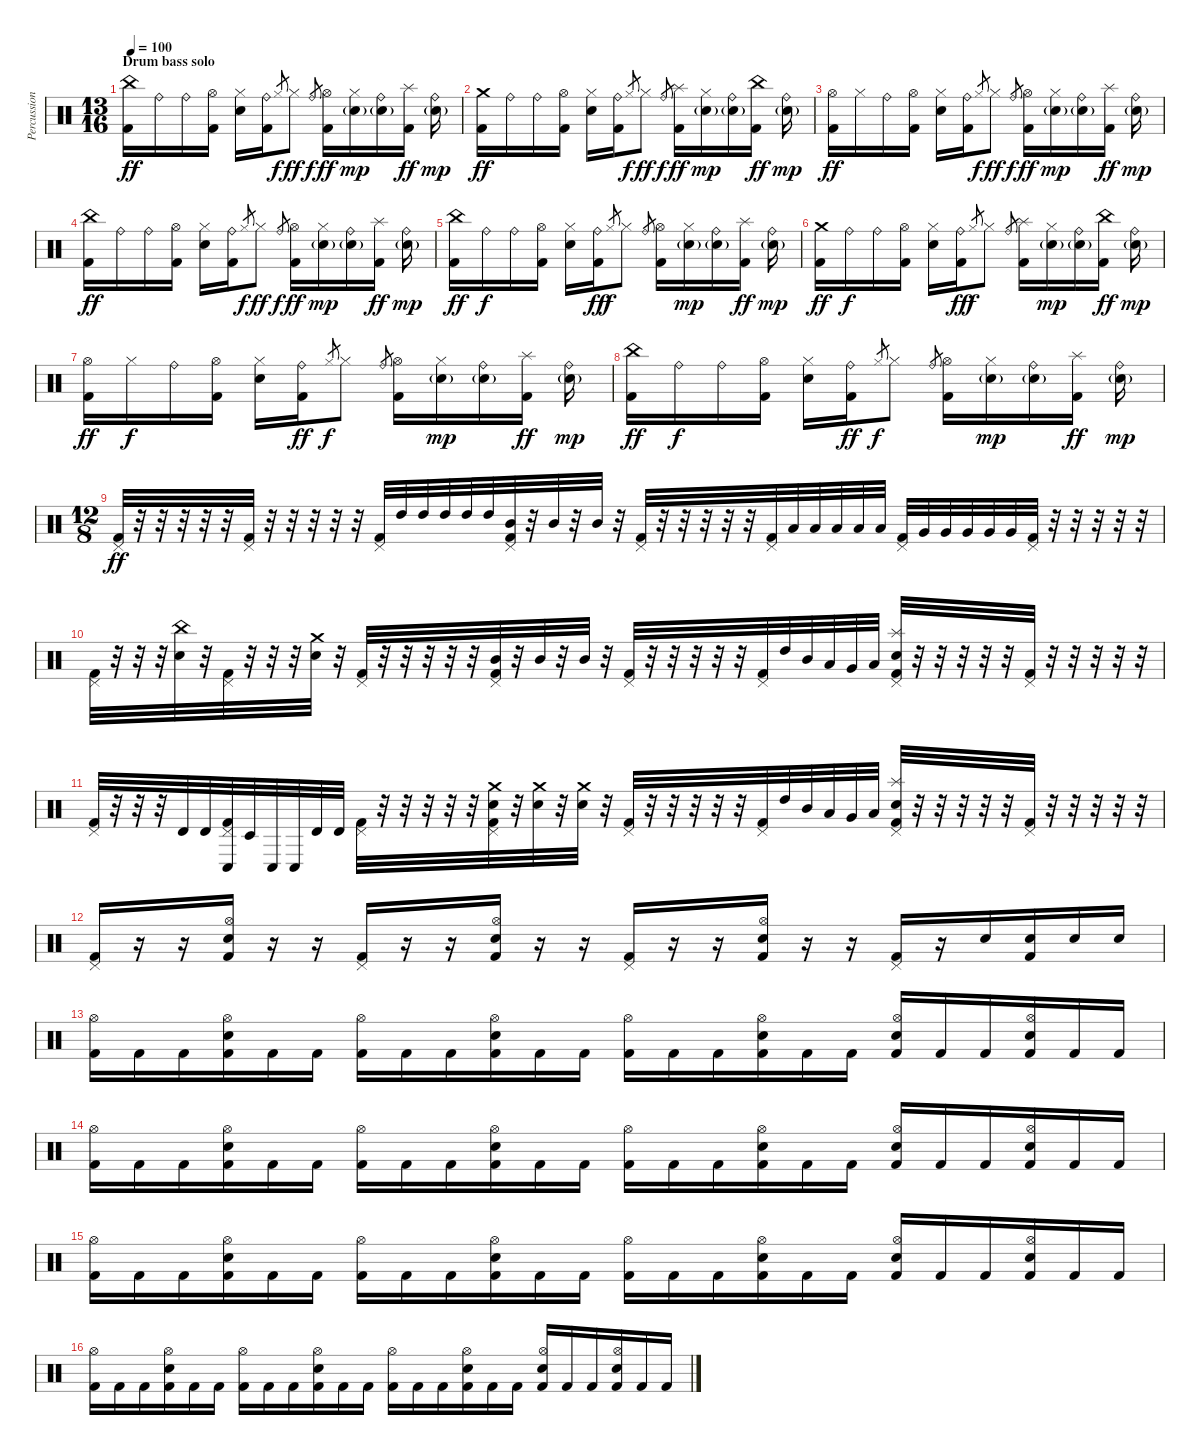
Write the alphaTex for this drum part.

\track ("Percussions" "Percussion") {instrument percussion}
\staff {score}
\articulation defaults
\ts (13 16)
\section ("" "Drum bass solo")
\tempo 100
\clef neutral
\ks c
("China (hit)" "Kick (hit) 2").16{dy ff} "Ride (bell)".16 "Ride (bell)".16 ("Hi-Hat (open)" "Kick (hit) 2").16 ("Hi-Hat (closed)" "Electric Snare (hit)").16 ("Ride (bell)" "Kick (hit) 2").16 "Hi-Hat (closed)".8{gr dy f} "Hi-Hat (closed)".8{dy ff} "Ride (bell)".8{gr dy f} ("Hi-Hat (open)" "Kick (hit) 2").16{dy ff} ("Hi-Hat (closed)" "Electric Snare (hit)"{g}).16{dy mp} ("Ride (bell)" "Electric Snare (hit)"{g}).16 ("Splash (hit)" "Kick (hit) 2").16{dy ff} ("Ride (bell)" "Electric Snare (hit)"{g}).16{dy mp} |
("Crash medium (hit)" "Kick (hit) 2").16{dy ff} "Ride (bell)".16 "Ride (bell)".16 ("Hi-Hat (open)" "Kick (hit) 2").16 ("Hi-Hat (closed)" "Electric Snare (hit)").16 ("Ride (bell)" "Kick (hit) 2").16 "Hi-Hat (closed)".8{gr dy f} "Hi-Hat (closed)".8{dy ff} "Ride (bell)".8{gr dy f} ("Splash (hit)" "Kick (hit) 2").16{dy ff} ("Hi-Hat (closed)" "Electric Snare (hit)"{g}).16{dy mp} ("Ride (bell)" "Electric Snare (hit)"{g}).16 ("China (hit)" "Kick (hit) 2").16{dy ff} ("Ride (bell)" "Electric Snare (hit)"{g}).16{dy mp} |
("Hi-Hat (open)" "Kick (hit) 2").16{dy ff} "Hi-Hat (closed)".16 "Ride (bell)".16 ("Hi-Hat (open)" "Kick (hit) 2").16 ("Hi-Hat (closed)" "Electric Snare (hit)").16 ("Ride (bell)" "Kick (hit) 2").16 "Hi-Hat (closed)".8{gr dy f} "Hi-Hat (closed)".8{dy ff} "Ride (bell)".8{gr dy f} ("Hi-Hat (open)" "Kick (hit) 2").16{dy ff} ("Hi-Hat (closed)" "Electric Snare (hit)"{g}).16{dy mp} ("Ride (bell)" "Electric Snare (hit)"{g}).16 ("Splash (hit)" "Kick (hit) 2").16{dy ff} ("Ride (bell)" "Electric Snare (hit)"{g}).16{dy mp} |
("China (hit)" "Kick (hit) 2").16{dy ff} "Ride (bell)".16 "Ride (bell)".16 ("Hi-Hat (open)" "Kick (hit) 2").16 ("Hi-Hat (closed)" "Electric Snare (hit)").16 ("Ride (bell)" "Kick (hit) 2").16 "Hi-Hat (closed)".8{gr dy f} "Hi-Hat (closed)".8{dy ff} "Ride (bell)".8{gr dy f} ("Hi-Hat (open)" "Kick (hit) 2").16{dy ff} ("Hi-Hat (closed)" "Electric Snare (hit)"{g}).16{dy mp} ("Ride (bell)" "Electric Snare (hit)"{g}).16 ("Splash (hit)" "Kick (hit) 2").16{dy ff} ("Ride (bell)" "Electric Snare (hit)"{g}).16{dy mp} |
("China (hit)" "Kick (hit) 2").16{dy ff} "Ride (bell)".16{dy f} "Ride (bell)".16 ("Hi-Hat (open)" "Kick (hit) 2").16 ("Hi-Hat (closed)" "Electric Snare (hit)").16 ("Ride (bell)" "Kick (hit) 2").16{dy ff} "Hi-Hat (closed)".8{gr dy f} "Hi-Hat (closed)".8 "Ride (bell)".8{gr} ("Hi-Hat (open)" "Kick (hit) 2").16 ("Hi-Hat (closed)" "Electric Snare (hit)"{g}).16{dy mp} ("Ride (bell)" "Electric Snare (hit)"{g}).16 ("Splash (hit)" "Kick (hit) 2").16{dy ff} ("Ride (bell)" "Electric Snare (hit)"{g}).16{dy mp} |
("Crash medium (hit)" "Kick (hit) 2").16{dy ff} "Ride (bell)".16{dy f} "Ride (bell)".16 ("Hi-Hat (open)" "Kick (hit) 2").16 ("Hi-Hat (closed)" "Electric Snare (hit)").16 ("Ride (bell)" "Kick (hit) 2").16{dy ff} "Hi-Hat (closed)".8{gr dy f} "Hi-Hat (closed)".8 "Ride (bell)".8{gr} ("Splash (hit)" "Kick (hit) 2").16 ("Hi-Hat (closed)" "Electric Snare (hit)"{g}).16{dy mp} ("Ride (bell)" "Electric Snare (hit)"{g}).16 ("China (hit)" "Kick (hit) 2").16{dy ff} ("Ride (bell)" "Electric Snare (hit)"{g}).16{dy mp} |
("Hi-Hat (open)" "Kick (hit) 2").16{dy ff} "Hi-Hat (closed)".16{dy f} "Ride (bell)".16 ("Hi-Hat (open)" "Kick (hit) 2").16 ("Hi-Hat (closed)" "Electric Snare (hit)").16 ("Ride (bell)" "Kick (hit) 2").16{dy ff} "Hi-Hat (closed)".8{gr dy f} "Hi-Hat (closed)".8 "Ride (bell)".8{gr} ("Hi-Hat (open)" "Kick (hit) 2").16 ("Hi-Hat (closed)" "Electric Snare (hit)"{g}).16{dy mp} ("Ride (bell)" "Electric Snare (hit)"{g}).16 ("Splash (hit)" "Kick (hit) 2").16{dy ff} ("Ride (bell)" "Electric Snare (hit)"{g}).16{dy mp} |
("China (hit)" "Kick (hit) 2").16{dy ff} "Ride (bell)".16{dy f} "Ride (bell)".16 ("Hi-Hat (open)" "Kick (hit) 2").16 ("Hi-Hat (closed)" "Electric Snare (hit)").16 ("Ride (bell)" "Kick (hit) 2").16{dy ff} "Hi-Hat (closed)".8{gr dy f} "Hi-Hat (closed)".8 "Ride (bell)".8{gr} ("Hi-Hat (open)" "Kick (hit) 2").16 ("Hi-Hat (closed)" "Electric Snare (hit)"{g}).16{dy mp} ("Ride (bell)" "Electric Snare (hit)"{g}).16 ("Splash (hit)" "Kick (hit) 2").16{dy ff} ("Ride (bell)" "Electric Snare (hit)"{g}).16{dy mp} |
\ts (12 8)
("Pedal Hi-Hat (hit)" "Kick (hit) 2").32{dy ff} r.32 r.32 r.32 r.32 r.32 ("Pedal Hi-Hat (hit)" "Kick (hit) 2").32 r.32 r.32 r.32 r.32 r.32 ("Pedal Hi-Hat (hit)" "Kick (hit) 2").32 "High Tom (hit)".32 "High Tom (hit)".32 "High Tom (hit)".32 "High Tom (hit)".32 "High Tom (hit)".32 ("Mid Tom (hit)" "Pedal Hi-Hat (hit)" "Kick (hit) 2").32 r.32 "Mid Tom (hit)".32 r.32 "Mid Tom (hit)".32 r.32 ("Pedal Hi-Hat (hit)" "Kick (hit) 2").32 r.32 r.32 r.32 r.32 r.32 ("Pedal Hi-Hat (hit)" "Kick (hit) 2").32 "Low Tom (hit)".32 "Low Tom (hit)".32 "Low Tom (hit)".32 "Low Tom (hit)".32 "Low Tom (hit)".32 ("Pedal Hi-Hat (hit)" "Kick (hit) 2").32 "Very Low Tom (hit)".32 "Very Low Tom (hit)".32 "Very Low Tom (hit)".32 "Very Low Tom (hit)".32 "Very Low Tom (hit)".32 ("Pedal Hi-Hat (hit)" "Kick (hit) 2").32 r.32 r.32 r.32 r.32 r.32 |
("Pedal Hi-Hat (hit)" "Kick (hit) 2").32 r.32 r.32 r.32 ("China (hit)" "Electric Snare (hit)").32 r.32 ("Pedal Hi-Hat (hit)" "Kick (hit) 2").32 r.32 r.32 r.32 ("Crash medium (hit)" "Electric Snare (hit)").32 r.32 ("Pedal Hi-Hat (hit)" "Kick (hit) 2").32 r.32 r.32 r.32 r.32 r.32 ("Mid Tom (hit)" "Pedal Hi-Hat (hit)" "Kick (hit) 2").32 r.32 "Mid Tom (hit)".32 r.32 "Mid Tom (hit)".32 r.32 ("Pedal Hi-Hat (hit)" "Kick (hit) 2").32 r.32 r.32 r.32 r.32 r.32 ("Pedal Hi-Hat (hit)" "Kick (hit) 2").32 "High Tom (hit)".32 "Mid Tom (hit)".32 "Low Tom (hit)".32 "Very Low Tom (hit)".32 "Low Floor Tom (hit)".32 ("Splash (hit)" "Electric Snare (hit)" "Pedal Hi-Hat (hit)" "Kick (hit) 2").32 r.32 r.32 r.32 r.32 r.32 ("Pedal Hi-Hat (hit)" "Kick (hit) 2").32 r.32 r.32 r.32 r.32 r.32 |
("Pedal Hi-Hat (hit)" "Kick (hit) 2").32 r.32 r.32 r.32 "Timbale high (hit)".32 "Timbale high (hit)".32 ("Conga low (hit)" "Pedal Hi-Hat (hit)" "Kick (hit) 2").32 "Timbale low (hit)".32 "Conga low (hit)".32 "Conga low (hit)".32 "Timbale high (hit)".32 "Timbale high (hit)".32 ("Pedal Hi-Hat (hit)" "Kick (hit) 2").32 r.32 r.32 r.32 r.32 r.32 ("Crash medium (hit)" "Electric Snare (hit)" "Pedal Hi-Hat (hit)" "Kick (hit) 2").32 r.32 ("Crash medium (hit)" "Electric Snare (hit)").32 r.32 ("Crash medium (hit)" "Electric Snare (hit)").32 r.32 ("Pedal Hi-Hat (hit)" "Kick (hit) 2").32 r.32 r.32 r.32 r.32 r.32 ("Pedal Hi-Hat (hit)" "Kick (hit) 2").32 "High Tom (hit)".32 "Mid Tom (hit)".32 "Low Tom (hit)".32 "Very Low Tom (hit)".32 "Low Floor Tom (hit)".32 ("Splash (hit)" "Electric Snare (hit)" "Pedal Hi-Hat (hit)" "Kick (hit) 2").32 r.32 r.32 r.32 r.32 r.32 ("Pedal Hi-Hat (hit)" "Kick (hit) 2").32 r.32 r.32 r.32 r.32 r.32 |
("Pedal Hi-Hat (hit)" "Kick (hit) 2").16 r.16 r.16 ("Hi-Hat (open)" "Electric Snare (hit)" "Kick (hit) 2").16 r.16 r.16 ("Pedal Hi-Hat (hit)" "Kick (hit) 2").16 r.16 r.16 ("Hi-Hat (open)" "Electric Snare (hit)" "Kick (hit) 2").16 r.16 r.16 ("Pedal Hi-Hat (hit)" "Kick (hit) 2").16 r.16 r.16 ("Electric Snare (hit)" "Hi-Hat (open)" "Kick (hit) 2").16 r.16 r.16 ("Pedal Hi-Hat (hit)" "Kick (hit) 2").16 r.16 "Electric Snare (hit)".16 ("Electric Snare (hit)" "Kick (hit) 2").16 "Electric Snare (hit)".16 "Electric Snare (hit)".16 |
("Hi-Hat (open)" "Kick (hit) 2").16 "Kick (hit) 2".16 "Kick (hit) 2".16 ("Hi-Hat (open)" "Electric Snare (hit)" "Kick (hit) 2").16 "Kick (hit) 2".16 "Kick (hit) 2".16 ("Hi-Hat (open)" "Kick (hit) 2").16 "Kick (hit) 2".16 "Kick (hit) 2".16 ("Hi-Hat (open)" "Electric Snare (hit)" "Kick (hit) 2").16 "Kick (hit) 2".16 "Kick (hit) 2".16 ("Hi-Hat (open)" "Kick (hit) 2").16 "Kick (hit) 2".16 "Kick (hit) 2".16 ("Hi-Hat (open)" "Electric Snare (hit)" "Kick (hit) 2").16 "Kick (hit) 2".16 "Kick (hit) 2".16 ("Hi-Hat (open)" "Electric Snare (hit)" "Kick (hit) 2").16 "Kick (hit) 2".16 "Kick (hit) 2".16 ("Hi-Hat (open)" "Electric Snare (hit)" "Kick (hit) 2").16 "Kick (hit) 2".16 "Kick (hit) 2".16 |
("Hi-Hat (open)" "Kick (hit) 2").16 "Kick (hit) 2".16 "Kick (hit) 2".16 ("Hi-Hat (open)" "Electric Snare (hit)" "Kick (hit) 2").16 "Kick (hit) 2".16 "Kick (hit) 2".16 ("Hi-Hat (open)" "Kick (hit) 2").16 "Kick (hit) 2".16 "Kick (hit) 2".16 ("Hi-Hat (open)" "Electric Snare (hit)" "Kick (hit) 2").16 "Kick (hit) 2".16 "Kick (hit) 2".16 ("Hi-Hat (open)" "Kick (hit) 2").16 "Kick (hit) 2".16 "Kick (hit) 2".16 ("Hi-Hat (open)" "Electric Snare (hit)" "Kick (hit) 2").16 "Kick (hit) 2".16 "Kick (hit) 2".16 ("Hi-Hat (open)" "Electric Snare (hit)" "Kick (hit) 2").16 "Kick (hit) 2".16 "Kick (hit) 2".16 ("Hi-Hat (open)" "Electric Snare (hit)" "Kick (hit) 2").16 "Kick (hit) 2".16 "Kick (hit) 2".16 |
("Hi-Hat (open)" "Kick (hit) 2").16 "Kick (hit) 2".16 "Kick (hit) 2".16 ("Hi-Hat (open)" "Electric Snare (hit)" "Kick (hit) 2").16 "Kick (hit) 2".16 "Kick (hit) 2".16 ("Hi-Hat (open)" "Kick (hit) 2").16 "Kick (hit) 2".16 "Kick (hit) 2".16 ("Hi-Hat (open)" "Electric Snare (hit)" "Kick (hit) 2").16 "Kick (hit) 2".16 "Kick (hit) 2".16 ("Hi-Hat (open)" "Kick (hit) 2").16 "Kick (hit) 2".16 "Kick (hit) 2".16 ("Hi-Hat (open)" "Electric Snare (hit)" "Kick (hit) 2").16 "Kick (hit) 2".16 "Kick (hit) 2".16 ("Hi-Hat (open)" "Electric Snare (hit)" "Kick (hit) 2").16 "Kick (hit) 2".16 "Kick (hit) 2".16 ("Hi-Hat (open)" "Electric Snare (hit)" "Kick (hit) 2").16 "Kick (hit) 2".16 "Kick (hit) 2".16 |
("Hi-Hat (open)" "Kick (hit) 2").16 "Kick (hit) 2".16 "Kick (hit) 2".16 ("Hi-Hat (open)" "Electric Snare (hit)" "Kick (hit) 2").16 "Kick (hit) 2".16 "Kick (hit) 2".16 ("Hi-Hat (open)" "Kick (hit) 2").16 "Kick (hit) 2".16 "Kick (hit) 2".16 ("Hi-Hat (open)" "Electric Snare (hit)" "Kick (hit) 2").16 "Kick (hit) 2".16 "Kick (hit) 2".16 ("Hi-Hat (open)" "Kick (hit) 2").16 "Kick (hit) 2".16 "Kick (hit) 2".16 ("Hi-Hat (open)" "Electric Snare (hit)" "Kick (hit) 2").16 "Kick (hit) 2".16 "Kick (hit) 2".16 ("Hi-Hat (open)" "Electric Snare (hit)" "Kick (hit) 2").16 "Kick (hit) 2".16 "Kick (hit) 2".16 ("Hi-Hat (open)" "Electric Snare (hit)" "Kick (hit) 2").16 "Kick (hit) 2".16 "Kick (hit) 2".16
